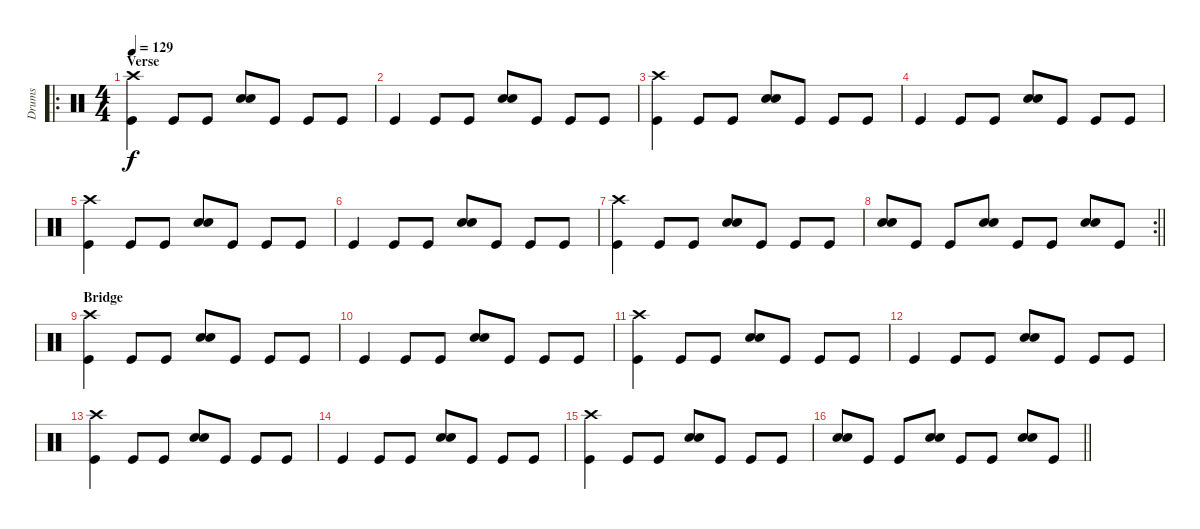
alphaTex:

\track ("Drums" "Drums") {instrument percussion}
\staff {score}
\articulation defaults
\ro
\ts (4 4)
\section ("" "Verse")
\tempo 129
\clef neutral
\ks c
("Crash high (hit)" "Kick (hit)").4{dy f} "Kick (hit)".8 "Kick (hit)".8 ("Snare (hit) 2" "Electric Snare (hit)").8 "Kick (hit)".8 "Kick (hit)".8 "Kick (hit)".8 |
"Kick (hit)".4 "Kick (hit)".8 "Kick (hit)".8 ("Snare (hit) 2" "Electric Snare (hit)").8 "Kick (hit)".8 "Kick (hit)".8 "Kick (hit)".8 |
("Crash high (hit)" "Kick (hit)").4 "Kick (hit)".8 "Kick (hit)".8 ("Snare (hit) 2" "Electric Snare (hit)").8 "Kick (hit)".8 "Kick (hit)".8 "Kick (hit)".8 |
"Kick (hit)".4 "Kick (hit)".8 "Kick (hit)".8 ("Snare (hit) 2" "Electric Snare (hit)").8 "Kick (hit)".8 "Kick (hit)".8 "Kick (hit)".8 |
("Crash high (hit)" "Kick (hit)").4 "Kick (hit)".8 "Kick (hit)".8 ("Snare (hit) 2" "Electric Snare (hit)").8 "Kick (hit)".8 "Kick (hit)".8 "Kick (hit)".8 |
"Kick (hit)".4 "Kick (hit)".8 "Kick (hit)".8 ("Snare (hit) 2" "Electric Snare (hit)").8 "Kick (hit)".8 "Kick (hit)".8 "Kick (hit)".8 |
("Crash high (hit)" "Kick (hit)").4 "Kick (hit)".8 "Kick (hit)".8 ("Snare (hit) 2" "Electric Snare (hit)").8 "Kick (hit)".8 "Kick (hit)".8 "Kick (hit)".8 |
\rc 2
\barLineRight lightlight
("Snare (hit) 2" "Electric Snare (hit)").8 "Kick (hit)".8 "Kick (hit)".8 ("Snare (hit) 2" "Electric Snare (hit)").8 "Kick (hit)".8 "Kick (hit)".8 ("Snare (hit) 2" "Electric Snare (hit)").8 "Kick (hit)".8 |
\section ("" "Bridge")
("Crash high (hit)" "Kick (hit)").4 "Kick (hit)".8 "Kick (hit)".8 ("Snare (hit) 2" "Electric Snare (hit)").8 "Kick (hit)".8 "Kick (hit)".8 "Kick (hit)".8 |
"Kick (hit)".4 "Kick (hit)".8 "Kick (hit)".8 ("Snare (hit) 2" "Electric Snare (hit)").8 "Kick (hit)".8 "Kick (hit)".8 "Kick (hit)".8 |
("Crash high (hit)" "Kick (hit)").4 "Kick (hit)".8 "Kick (hit)".8 ("Snare (hit) 2" "Electric Snare (hit)").8 "Kick (hit)".8 "Kick (hit)".8 "Kick (hit)".8 |
"Kick (hit)".4 "Kick (hit)".8 "Kick (hit)".8 ("Snare (hit) 2" "Electric Snare (hit)").8 "Kick (hit)".8 "Kick (hit)".8 "Kick (hit)".8 |
("Crash high (hit)" "Kick (hit)").4 "Kick (hit)".8 "Kick (hit)".8 ("Snare (hit) 2" "Electric Snare (hit)").8 "Kick (hit)".8 "Kick (hit)".8 "Kick (hit)".8 |
"Kick (hit)".4 "Kick (hit)".8 "Kick (hit)".8 ("Snare (hit) 2" "Electric Snare (hit)").8 "Kick (hit)".8 "Kick (hit)".8 "Kick (hit)".8 |
("Crash high (hit)" "Kick (hit)").4 "Kick (hit)".8 "Kick (hit)".8 ("Snare (hit) 2" "Electric Snare (hit)").8 "Kick (hit)".8 "Kick (hit)".8 "Kick (hit)".8 |
\barLineRight lightlight
("Snare (hit) 2" "Electric Snare (hit)").8 "Kick (hit)".8 "Kick (hit)".8 ("Snare (hit) 2" "Electric Snare (hit)").8 "Kick (hit)".8 "Kick (hit)".8 ("Snare (hit) 2" "Electric Snare (hit)").8 "Kick (hit)".8
